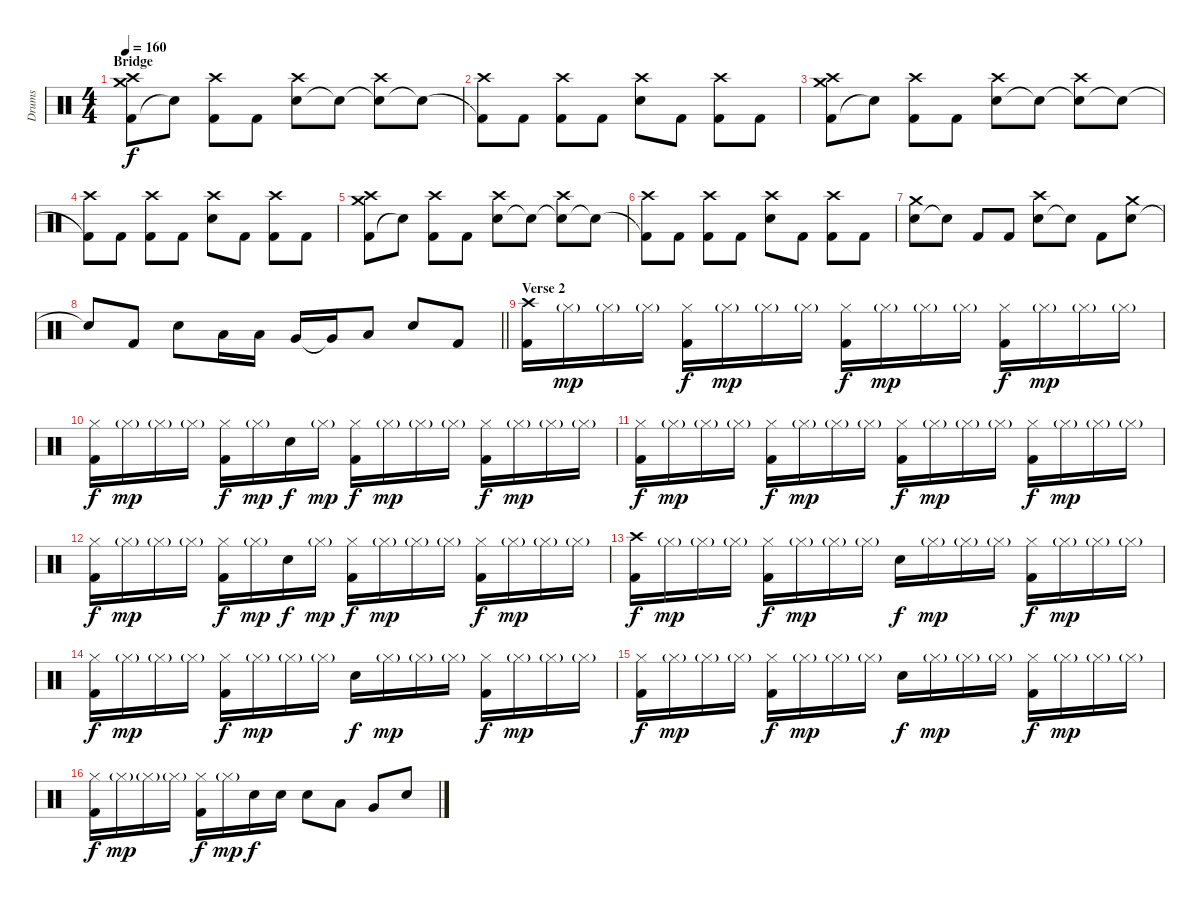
\track ("Drums" "Drums") {instrument percussion}
\staff {score}
\articulation defaults
\ts (4 4)
\section ("" "Bridge")
\tempo 160
\clef neutral
\ks c
("Kick (hit) 2" "Crash medium (hit)" "Crash high (hit)").8{dy f} "Snare (hit)"{t}.8 ("Kick (hit) 2" "Crash high (hit)").8 "Kick (hit) 2".8 ("Electric Snare (hit)" "Crash high (hit)").8 "Snare (hit)"{t}.8 ("Snare (hit)"{t} "Crash high (hit)").8 "Snare (hit)"{t}.8 |
("Kick (hit) 2"{t} "Crash high (hit)").8 "Kick (hit) 2".8 ("Kick (hit) 2" "Crash high (hit)").8 "Kick (hit) 2".8 ("Electric Snare (hit)" "Crash high (hit)").8 "Kick (hit) 2".8 ("Kick (hit) 2" "Crash high (hit)").8 "Kick (hit) 2".8 |
("Kick (hit) 2" "Crash medium (hit)" "Crash high (hit)").8 "Snare (hit)"{t}.8 ("Kick (hit) 2" "Crash high (hit)").8 "Kick (hit) 2".8 ("Electric Snare (hit)" "Crash high (hit)").8 "Snare (hit)"{t}.8 ("Snare (hit)"{t} "Crash high (hit)").8 "Snare (hit)"{t}.8 |
("Kick (hit) 2"{t} "Crash high (hit)").8 "Kick (hit) 2".8 ("Kick (hit) 2" "Crash high (hit)").8 "Kick (hit) 2".8 ("Electric Snare (hit)" "Crash high (hit)").8 "Kick (hit) 2".8 ("Kick (hit) 2" "Crash high (hit)").8 "Kick (hit) 2".8 |
("Kick (hit) 2" "Crash medium (hit)" "Crash high (hit)").8 "Snare (hit)"{t}.8 ("Kick (hit) 2" "Crash high (hit)").8 "Kick (hit) 2".8 ("Electric Snare (hit)" "Crash high (hit)").8 "Snare (hit)"{t}.8 ("Snare (hit)"{t} "Crash high (hit)").8 "Snare (hit)"{t}.8 |
("Kick (hit) 2"{t} "Crash high (hit)").8 "Kick (hit) 2".8 ("Kick (hit) 2" "Crash high (hit)").8 "Kick (hit) 2".8 ("Electric Snare (hit)" "Crash high (hit)").8 "Kick (hit) 2".8 ("Kick (hit) 2" "Crash high (hit)").8 "Kick (hit) 2".8 |
("Electric Snare (hit)" "Crash medium (hit)").8 "Snare (hit)"{t}.8 "Kick (hit) 2".8 "Kick (hit) 2".8 ("Electric Snare (hit)" "Crash high (hit)").8 "Snare (hit)"{t}.8 "Kick (hit) 2".8 ("Electric Snare (hit)" "Crash medium (hit)").8 |
\barLineRight lightlight "Snare (hit)"{t}.8 "Kick (hit) 2".8 "Electric Snare (hit)".8 "Low Tom (hit)".16 "Low Tom (hit)".16 "Very Low Tom (hit)".16 "Very Low Tom (hit)"{t}.16 "Low Floor Tom (hit)".8 "Electric Snare (hit)".8 "Kick (hit) 2".8
|
\section ("" "Verse 2")
("Kick (hit) 2" "Crash high (hit)").16 "Hi-Hat (closed)"{g}.16{dy mp} "Hi-Hat (closed)"{g}.16 "Hi-Hat (closed)"{g}.16 ("Kick (hit) 2" "Hi-Hat (closed)").16{dy f} "Hi-Hat (closed)"{g}.16{dy mp} "Hi-Hat (closed)"{g}.16 "Hi-Hat (closed)"{g}.16 ("Kick (hit) 2" "Hi-Hat (closed)").16{dy f} "Hi-Hat (closed)"{g}.16{dy mp} "Hi-Hat (closed)"{g}.16 "Hi-Hat (closed)"{g}.16 ("Kick (hit) 2" "Hi-Hat (closed)").16{dy f} "Hi-Hat (closed)"{g}.16{dy mp} "Hi-Hat (closed)"{g}.16 "Hi-Hat (closed)"{g}.16 |
("Kick (hit) 2" "Hi-Hat (closed)").16{dy f} "Hi-Hat (closed)"{g}.16{dy mp} "Hi-Hat (closed)"{g}.16 "Hi-Hat (closed)"{g}.16 ("Kick (hit) 2" "Hi-Hat (closed)").16{dy f} "Hi-Hat (closed)"{g}.16{dy mp} "Electric Snare (hit)".16{dy f} "Hi-Hat (closed)"{g}.16{dy mp} ("Kick (hit) 2" "Hi-Hat (closed)").16{dy f} "Hi-Hat (closed)"{g}.16{dy mp} "Hi-Hat (closed)"{g}.16 "Hi-Hat (closed)"{g}.16 ("Kick (hit) 2" "Hi-Hat (closed)").16{dy f} "Hi-Hat (closed)"{g}.16{dy mp} "Hi-Hat (closed)"{g}.16 "Hi-Hat (closed)"{g}.16 |
("Kick (hit) 2" "Hi-Hat (closed)").16{dy f} "Hi-Hat (closed)"{g}.16{dy mp} "Hi-Hat (closed)"{g}.16 "Hi-Hat (closed)"{g}.16 ("Kick (hit) 2" "Hi-Hat (closed)").16{dy f} "Hi-Hat (closed)"{g}.16{dy mp} "Hi-Hat (closed)"{g}.16 "Hi-Hat (closed)"{g}.16 ("Kick (hit) 2" "Hi-Hat (closed)").16{dy f} "Hi-Hat (closed)"{g}.16{dy mp} "Hi-Hat (closed)"{g}.16 "Hi-Hat (closed)"{g}.16 ("Kick (hit) 2" "Hi-Hat (closed)").16{dy f} "Hi-Hat (closed)"{g}.16{dy mp} "Hi-Hat (closed)"{g}.16 "Hi-Hat (closed)"{g}.16 |
("Kick (hit) 2" "Hi-Hat (closed)").16{dy f} "Hi-Hat (closed)"{g}.16{dy mp} "Hi-Hat (closed)"{g}.16 "Hi-Hat (closed)"{g}.16 ("Kick (hit) 2" "Hi-Hat (closed)").16{dy f} "Hi-Hat (closed)"{g}.16{dy mp} "Electric Snare (hit)".16{dy f} "Hi-Hat (closed)"{g}.16{dy mp} ("Kick (hit) 2" "Hi-Hat (closed)").16{dy f} "Hi-Hat (closed)"{g}.16{dy mp} "Hi-Hat (closed)"{g}.16 "Hi-Hat (closed)"{g}.16 ("Kick (hit) 2" "Hi-Hat (closed)").16{dy f} "Hi-Hat (closed)"{g}.16{dy mp} "Hi-Hat (closed)"{g}.16 "Hi-Hat (closed)"{g}.16 |
("Kick (hit) 2" "Crash high (hit)").16{dy f} "Hi-Hat (closed)"{g}.16{dy mp} "Hi-Hat (closed)"{g}.16 "Hi-Hat (closed)"{g}.16 ("Kick (hit) 2" "Hi-Hat (closed)").16{dy f} "Hi-Hat (closed)"{g}.16{dy mp} "Hi-Hat (closed)"{g}.16 "Hi-Hat (closed)"{g}.16 "Electric Snare (hit)".16{dy f} "Hi-Hat (closed)"{g}.16{dy mp} "Hi-Hat (closed)"{g}.16 "Hi-Hat (closed)"{g}.16 ("Kick (hit) 2" "Hi-Hat (closed)").16{dy f} "Hi-Hat (closed)"{g}.16{dy mp} "Hi-Hat (closed)"{g}.16 "Hi-Hat (closed)"{g}.16 |
("Kick (hit) 2" "Hi-Hat (closed)").16{dy f} "Hi-Hat (closed)"{g}.16{dy mp} "Hi-Hat (closed)"{g}.16 "Hi-Hat (closed)"{g}.16 ("Kick (hit) 2" "Hi-Hat (closed)").16{dy f} "Hi-Hat (closed)"{g}.16{dy mp} "Hi-Hat (closed)"{g}.16 "Hi-Hat (closed)"{g}.16 "Electric Snare (hit)".16{dy f} "Hi-Hat (closed)"{g}.16{dy mp} "Hi-Hat (closed)"{g}.16 "Hi-Hat (closed)"{g}.16 ("Kick (hit) 2" "Hi-Hat (closed)").16{dy f} "Hi-Hat (closed)"{g}.16{dy mp} "Hi-Hat (closed)"{g}.16 "Hi-Hat (closed)"{g}.16 |
("Kick (hit) 2" "Hi-Hat (closed)").16{dy f} "Hi-Hat (closed)"{g}.16{dy mp} "Hi-Hat (closed)"{g}.16 "Hi-Hat (closed)"{g}.16 ("Kick (hit) 2" "Hi-Hat (closed)").16{dy f} "Hi-Hat (closed)"{g}.16{dy mp} "Hi-Hat (closed)"{g}.16 "Hi-Hat (closed)"{g}.16 "Electric Snare (hit)".16{dy f} "Hi-Hat (closed)"{g}.16{dy mp} "Hi-Hat (closed)"{g}.16 "Hi-Hat (closed)"{g}.16 ("Kick (hit) 2" "Hi-Hat (closed)").16{dy f} "Hi-Hat (closed)"{g}.16{dy mp} "Hi-Hat (closed)"{g}.16 "Hi-Hat (closed)"{g}.16 |
("Kick (hit) 2" "Hi-Hat (closed)").16{dy f} "Hi-Hat (closed)"{g}.16{dy mp} "Hi-Hat (closed)"{g}.16 "Hi-Hat (closed)"{g}.16 ("Kick (hit) 2" "Hi-Hat (closed)").16{dy f} "Hi-Hat (closed)"{g}.16{dy mp} "Electric Snare (hit)".16{dy f} "Electric Snare (hit)".16 "Electric Snare (hit)".8 "Low Tom (hit)".8 "Very Low Tom (hit)".8 "Electric Snare (hit)".8
